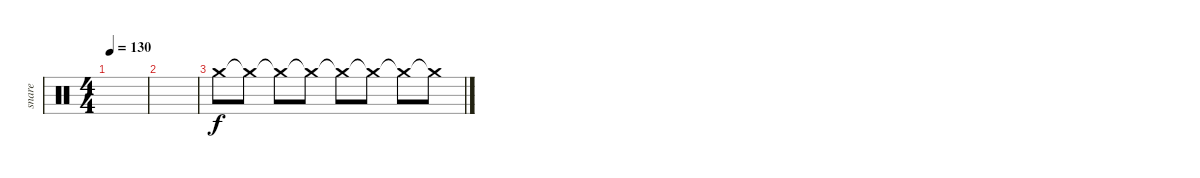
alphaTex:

\track ("snare" "snare") {instrument percussion}
\staff {score}
\articulation defaults
\ts (4 4)
\tempo 130
\clef neutral
\ks c
|
|
"Crash medium (hit)".8 "Crash medium (hit)"{t}.8 "Crash medium (hit)"{t}.8 "Crash medium (hit)"{t}.8 "Crash medium (hit)"{t}.8 "Crash medium (hit)"{t}.8 "Crash medium (hit)"{t}.8 "Crash medium (hit)"{t}.8
